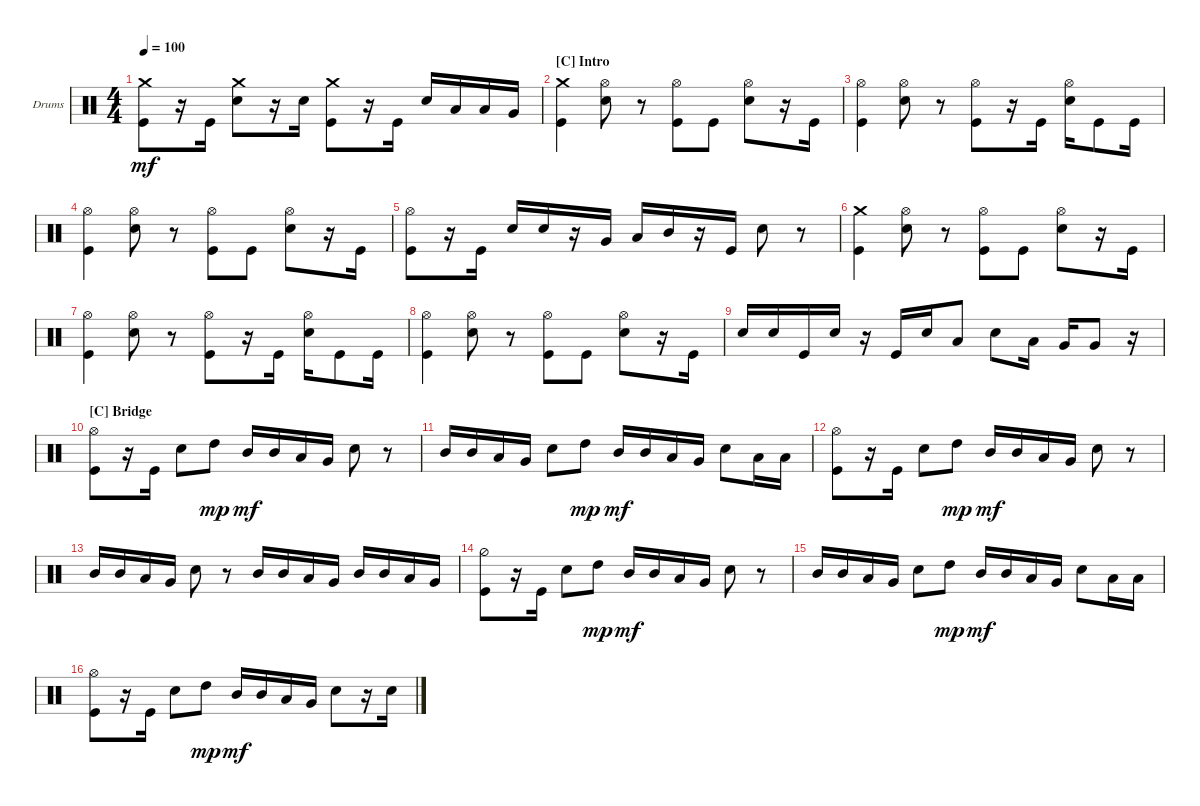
\defaultSystemsLayout 4
\bracketExtendMode groupsimilarinstruments
\firstSystemTrackNameOrientation horizontal
\otherSystemsTrackNameOrientation horizontal
\track ("Drumkit" "Drums") {instrument percussion}
\staff {score}
\articulation defaults
\ts (4 4)
\tempo 100
\clef neutral
\ks c
("Kick (hit)" "Crash medium (hit)").8{dy mf} r.16 "Kick (hit)".16 ("Snare (hit) 2" "Crash medium (hit)").8 r.16 "Snare (hit) 2".16 ("Kick (hit)" "Crash medium (hit)").8 r.16 "Kick (hit)".16 "Snare (hit) 2".16 "Low Tom (hit)".16 "Low Tom (hit)".16 "Very Low Tom (hit)".16 |
\section ("C" "Intro")
("Kick (hit)" "Crash medium (hit)").4 ("Snare (hit) 2" "Hi-Hat (open)").8 r.8 ("Hi-Hat (open)" "Kick (hit)").8 "Kick (hit)".8 ("Snare (hit) 2" "Hi-Hat (open)").8 r.16 "Kick (hit)".16 |
("Kick (hit)" "Hi-Hat (open)").4 ("Snare (hit) 2" "Hi-Hat (open)").8 r.8 ("Kick (hit)" "Hi-Hat (open)").8 r.16 "Kick (hit)".16 ("Snare (hit) 2" "Hi-Hat (open)").16 "Kick (hit)".8 "Kick (hit)".16 |
("Kick (hit)" "Hi-Hat (open)").4 ("Snare (hit) 2" "Hi-Hat (open)").8 r.8 ("Hi-Hat (open)" "Kick (hit)").8 "Kick (hit)".8 ("Snare (hit) 2" "Hi-Hat (open)").8 r.16 "Kick (hit)".16 |
("Kick (hit)" "Hi-Hat (open)").8 r.16 "Kick (hit)".16 "Snare (hit) 2".16 "Snare (hit) 2".16 r.16 "Very Low Tom (hit)".16 "Low Tom (hit)".16 "Mid Tom (hit)".16 r.16 "Kick (hit)".16 "Snare (hit) 2".8 r.8 |
("Kick (hit)" "Crash medium (hit)").4 ("Snare (hit) 2" "Hi-Hat (open)").8 r.8 ("Hi-Hat (open)" "Kick (hit)").8 "Kick (hit)".8 ("Snare (hit) 2" "Hi-Hat (open)").8 r.16 "Kick (hit)".16 |
("Kick (hit)" "Hi-Hat (open)").4 ("Snare (hit) 2" "Hi-Hat (open)").8 r.8 ("Kick (hit)" "Hi-Hat (open)").8 r.16 "Kick (hit)".16 ("Snare (hit) 2" "Hi-Hat (open)").16 "Kick (hit)".8 "Kick (hit)".16 |
("Kick (hit)" "Hi-Hat (open)").4 ("Snare (hit) 2" "Hi-Hat (open)").8 r.8 ("Hi-Hat (open)" "Kick (hit)").8 "Kick (hit)".8 ("Snare (hit) 2" "Hi-Hat (open)").8 r.16 "Kick (hit)".16 |
"Snare (hit) 2".16 "Snare (hit) 2".16 "Kick (hit)".16 "Snare (hit) 2".16 r.16 "Kick (hit)".16 "Snare (hit) 2".16 "Low Tom (hit)".8 "Snare (hit) 2".8 "Low Tom (hit)".16 "Very Low Tom (hit)".16 "Very Low Tom (hit)".8 r.16 |
\section ("C" "Bridge")
("Kick (hit)" "Hi-Hat (open)").8 r.16 "Kick (hit)".16 "Snare (hit) 2".8 "High Tom (hit)".8{dy mp} "Mid Tom (hit)".16{dy mf} "Mid Tom (hit)".16 "Low Tom (hit)".16 "Very Low Tom (hit)".16 "Snare (hit) 2".8 r.8 |
"Mid Tom (hit)".16 "Mid Tom (hit)".16 "Low Tom (hit)".16 "Very Low Tom (hit)".16 "Snare (hit) 2".8 "High Tom (hit)".8{dy mp} "Mid Tom (hit)".16{dy mf} "Mid Tom (hit)".16 "Low Tom (hit)".16 "Very Low Tom (hit)".16 "Snare (hit) 2".8 "Low Tom (hit)".16 "Low Tom (hit)".16 |
("Kick (hit)" "Hi-Hat (open)").8 r.16 "Kick (hit)".16 "Snare (hit) 2".8 "High Tom (hit)".8{dy mp} "Mid Tom (hit)".16{dy mf} "Mid Tom (hit)".16 "Low Tom (hit)".16 "Very Low Tom (hit)".16 "Snare (hit) 2".8 r.8 |
"Mid Tom (hit)".16 "Mid Tom (hit)".16 "Low Tom (hit)".16 "Very Low Tom (hit)".16 "Snare (hit) 2".8 r.8 "Mid Tom (hit)".16 "Mid Tom (hit)".16 "Low Tom (hit)".16 "Very Low Tom (hit)".16 "Mid Tom (hit)".16 "Mid Tom (hit)".16 "Low Tom (hit)".16 "Very Low Tom (hit)".16 |
("Kick (hit)" "Hi-Hat (half)").8 r.16 "Kick (hit)".16 "Snare (hit) 2".8 "High Tom (hit)".8{dy mp} "Mid Tom (hit)".16{dy mf} "Mid Tom (hit)".16 "Low Tom (hit)".16 "Very Low Tom (hit)".16 "Snare (hit) 2".8 r.8 |
"Mid Tom (hit)".16 "Mid Tom (hit)".16 "Low Tom (hit)".16 "Very Low Tom (hit)".16 "Snare (hit) 2".8 "High Tom (hit)".8{dy mp} "Mid Tom (hit)".16{dy mf} "Mid Tom (hit)".16 "Low Tom (hit)".16 "Very Low Tom (hit)".16 "Snare (hit) 2".8 "Low Tom (hit)".16 "Low Tom (hit)".16 |
("Kick (hit)" "Hi-Hat (open)").8 r.16 "Kick (hit)".16 "Snare (hit) 2".8 "High Tom (hit)".8{dy mp} "Mid Tom (hit)".16{dy mf} "Mid Tom (hit)".16 "Low Tom (hit)".16 "Very Low Tom (hit)".16 "Snare (hit) 2".8 r.16 "Snare (hit) 2".16
